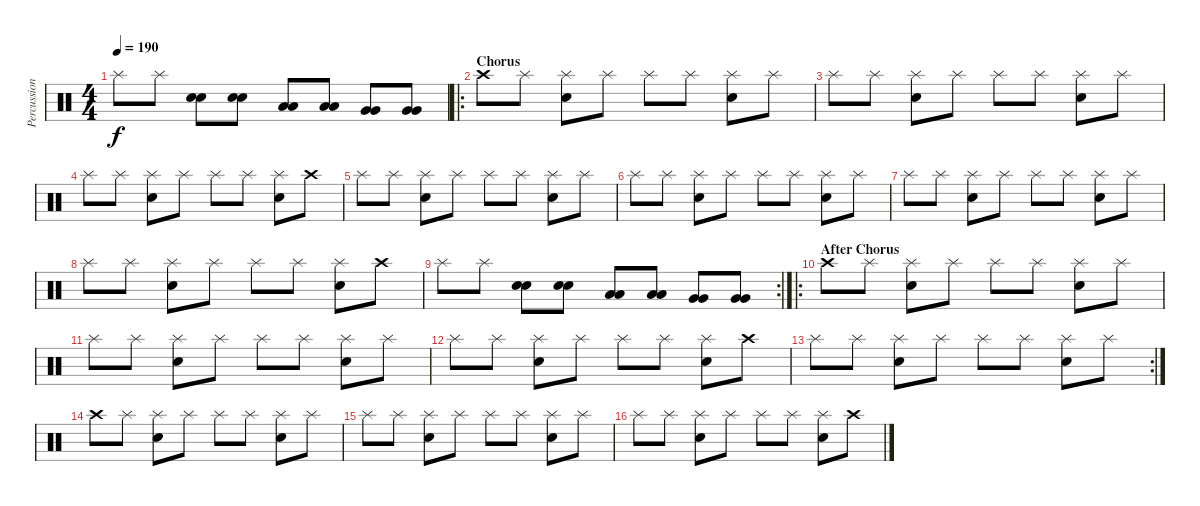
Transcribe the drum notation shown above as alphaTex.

\track ("Percussion" "Percussion") {instrument percussion}
\staff {score}
\articulation defaults
\ts (4 4)
\tempo 190
\clef neutral
\ks c "Splash (hit)".8{dy f} "Splash (hit)".8
("Snare (hit) 2" "Snare (hit) 2").8 ("Snare (hit) 2" "Snare (hit) 2").8 ("Low Floor Tom (hit)" "Low Floor Tom (hit)").8 ("Low Floor Tom (hit)" "Low Floor Tom (hit)").8 ("Very Low Tom (hit)" "Very Low Tom (hit)").8 ("Very Low Tom (hit)" "Very Low Tom (hit)").8 |
\ro
\section ("" "Chorus")
"Crash high (hit)".8 "Splash (hit)".8 ("Splash (hit)" "Electric Snare (hit)").8 "Splash (hit)".8 "Splash (hit)".8 "Splash (hit)".8 ("Splash (hit)" "Electric Snare (hit)").8 "Splash (hit)".8 |
"Splash (hit)".8 "Splash (hit)".8 ("Splash (hit)" "Electric Snare (hit)").8 "Splash (hit)".8 "Splash (hit)".8 "Splash (hit)".8 ("Splash (hit)" "Electric Snare (hit)").8 "Splash (hit)".8 |
"Splash (hit)".8 "Splash (hit)".8 ("Splash (hit)" "Electric Snare (hit)").8 "Splash (hit)".8 "Splash (hit)".8 "Splash (hit)".8 ("Splash (hit)" "Electric Snare (hit)").8 "Crash high (hit)".8 |
"Splash (hit)".8 "Splash (hit)".8 ("Splash (hit)" "Electric Snare (hit)").8 "Splash (hit)".8 "Splash (hit)".8 "Splash (hit)".8 ("Splash (hit)" "Electric Snare (hit)").8 "Splash (hit)".8 |
"Splash (hit)".8 "Splash (hit)".8 ("Splash (hit)" "Electric Snare (hit)").8 "Splash (hit)".8 "Splash (hit)".8 "Splash (hit)".8 ("Splash (hit)" "Electric Snare (hit)").8 "Splash (hit)".8 |
"Splash (hit)".8 "Splash (hit)".8 ("Splash (hit)" "Electric Snare (hit)").8 "Splash (hit)".8 "Splash (hit)".8 "Splash (hit)".8 ("Splash (hit)" "Electric Snare (hit)").8 "Splash (hit)".8 |
"Splash (hit)".8 "Splash (hit)".8 ("Splash (hit)" "Electric Snare (hit)").8 "Splash (hit)".8 "Splash (hit)".8 "Splash (hit)".8 ("Splash (hit)" "Electric Snare (hit)").8 "Crash high (hit)".8 |
\rc 2 "Splash (hit)".8 "Splash (hit)".8
("Snare (hit) 2" "Snare (hit) 2").8 ("Snare (hit) 2" "Snare (hit) 2").8 ("Low Floor Tom (hit)" "Low Floor Tom (hit)").8 ("Low Floor Tom (hit)" "Low Floor Tom (hit)").8 ("Very Low Tom (hit)" "Very Low Tom (hit)").8 ("Very Low Tom (hit)" "Very Low Tom (hit)").8 |
\ro
\section ("" "After Chorus")
"Crash high (hit)".8 "Splash (hit)".8 ("Splash (hit)" "Electric Snare (hit)").8 "Splash (hit)".8 "Splash (hit)".8 "Splash (hit)".8 ("Splash (hit)" "Electric Snare (hit)").8 "Splash (hit)".8 |
"Splash (hit)".8 "Splash (hit)".8 ("Splash (hit)" "Electric Snare (hit)").8 "Splash (hit)".8 "Splash (hit)".8 "Splash (hit)".8 ("Splash (hit)" "Electric Snare (hit)").8 "Splash (hit)".8 |
"Splash (hit)".8 "Splash (hit)".8 ("Splash (hit)" "Electric Snare (hit)").8 "Splash (hit)".8 "Splash (hit)".8 "Splash (hit)".8 ("Splash (hit)" "Electric Snare (hit)").8 "Crash high (hit)".8 |
\rc 2 "Splash (hit)".8 "Splash (hit)".8
("Splash (hit)" "Electric Snare (hit)").8 "Splash (hit)".8 "Splash (hit)".8 "Splash (hit)".8 ("Splash (hit)" "Electric Snare (hit)").8 "Splash (hit)".8 |
"Crash high (hit)".8 "Splash (hit)".8 ("Splash (hit)" "Electric Snare (hit)").8 "Splash (hit)".8 "Splash (hit)".8 "Splash (hit)".8 ("Splash (hit)" "Electric Snare (hit)").8 "Splash (hit)".8 |
"Splash (hit)".8 "Splash (hit)".8 ("Splash (hit)" "Electric Snare (hit)").8 "Splash (hit)".8 "Splash (hit)".8 "Splash (hit)".8 ("Splash (hit)" "Electric Snare (hit)").8 "Splash (hit)".8 |
"Splash (hit)".8 "Splash (hit)".8 ("Splash (hit)" "Electric Snare (hit)").8 "Splash (hit)".8 "Splash (hit)".8 "Splash (hit)".8 ("Splash (hit)" "Electric Snare (hit)").8 "Crash high (hit)".8
